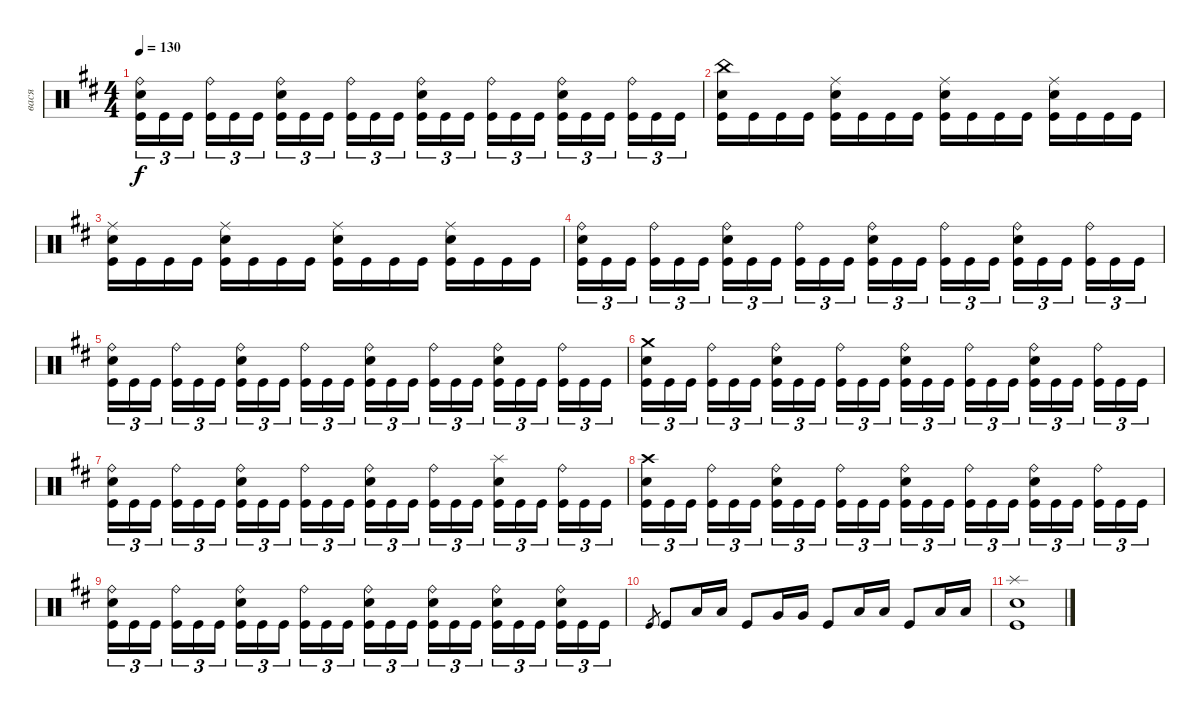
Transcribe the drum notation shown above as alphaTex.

\track ("вася" "вася") {instrument percussion}
\staff {score}
\articulation defaults
\ts (4 4)
\tempo 130
\clef neutral
\ks bminor
("Ride (bell)" "Electric Snare (hit)" "Kick (hit)").16{tu (3 2) dy f} "Kick (hit)".16{tu (3 2)} "Kick (hit)".16{tu (3 2) beam splitsecondary} ("Ride (bell)" "Kick (hit)").16{tu (3 2)} "Kick (hit)".16{tu (3 2)} "Kick (hit)".16{tu (3 2)} ("Ride (bell)" "Electric Snare (hit)" "Kick (hit)").16{tu (3 2)} "Kick (hit)".16{tu (3 2)} "Kick (hit)".16{tu (3 2) beam splitsecondary} ("Ride (bell)" "Kick (hit)").16{tu (3 2)} "Kick (hit)".16{tu (3 2)} "Kick (hit)".16{tu (3 2)} ("Ride (bell)" "Electric Snare (hit)" "Kick (hit)").16{tu (3 2)} "Kick (hit)".16{tu (3 2)} "Kick (hit)".16{tu (3 2) beam splitsecondary} ("Ride (bell)" "Kick (hit)").16{tu (3 2)} "Kick (hit)".16{tu (3 2)} "Kick (hit)".16{tu (3 2)} ("Ride (bell)" "Electric Snare (hit)" "Kick (hit)").16{tu (3 2)} "Kick (hit)".16{tu (3 2)} "Kick (hit)".16{tu (3 2) beam splitsecondary} ("Ride (bell)" "Kick (hit)").16{tu (3 2)} "Kick (hit)".16{tu (3 2)} "Kick (hit)".16{tu (3 2)} |
("China (hit)" "Electric Snare (hit)" "Kick (hit)").16 "Kick (hit)".16 "Kick (hit)".16 "Kick (hit)".16 ("Ride (middle)" "Electric Snare (hit)" "Kick (hit)").16 "Kick (hit)".16 "Kick (hit)".16 "Kick (hit)".16 ("Ride (middle)" "Electric Snare (hit)" "Kick (hit)").16 "Kick (hit)".16 "Kick (hit)".16 "Kick (hit)".16 ("Ride (middle)" "Electric Snare (hit)" "Kick (hit)").16 "Kick (hit)".16 "Kick (hit)".16 "Kick (hit)".16 |
("Ride (middle)" "Electric Snare (hit)" "Kick (hit)").16 "Kick (hit)".16 "Kick (hit)".16 "Kick (hit)".16 ("Ride (middle)" "Electric Snare (hit)" "Kick (hit)").16 "Kick (hit)".16 "Kick (hit)".16 "Kick (hit)".16 ("Ride (middle)" "Electric Snare (hit)" "Kick (hit)").16 "Kick (hit)".16 "Kick (hit)".16 "Kick (hit)".16 ("Ride (middle)" "Electric Snare (hit)" "Kick (hit)").16 "Kick (hit)".16 "Kick (hit)".16 "Kick (hit)".16 |
("Ride (bell)" "Electric Snare (hit)" "Kick (hit)").16{tu (3 2)} "Kick (hit)".16{tu (3 2)} "Kick (hit)".16{tu (3 2) beam splitsecondary} ("Ride (bell)" "Kick (hit)").16{tu (3 2)} "Kick (hit)".16{tu (3 2)} "Kick (hit)".16{tu (3 2)} ("Ride (bell)" "Electric Snare (hit)" "Kick (hit)").16{tu (3 2)} "Kick (hit)".16{tu (3 2)} "Kick (hit)".16{tu (3 2) beam splitsecondary} ("Ride (bell)" "Kick (hit)").16{tu (3 2)} "Kick (hit)".16{tu (3 2)} "Kick (hit)".16{tu (3 2)} ("Ride (bell)" "Electric Snare (hit)" "Kick (hit)").16{tu (3 2)} "Kick (hit)".16{tu (3 2)} "Kick (hit)".16{tu (3 2) beam splitsecondary} ("Ride (bell)" "Kick (hit)").16{tu (3 2)} "Kick (hit)".16{tu (3 2)} "Kick (hit)".16{tu (3 2)} ("Ride (bell)" "Electric Snare (hit)" "Kick (hit)").16{tu (3 2)} "Kick (hit)".16{tu (3 2)} "Kick (hit)".16{tu (3 2) beam splitsecondary} ("Ride (bell)" "Kick (hit)").16{tu (3 2)} "Kick (hit)".16{tu (3 2)} "Kick (hit)".16{tu (3 2)} |
("Ride (bell)" "Electric Snare (hit)" "Kick (hit)").16{tu (3 2)} "Kick (hit)".16{tu (3 2)} "Kick (hit)".16{tu (3 2) beam splitsecondary} ("Ride (bell)" "Kick (hit)").16{tu (3 2)} "Kick (hit)".16{tu (3 2)} "Kick (hit)".16{tu (3 2)} ("Ride (bell)" "Electric Snare (hit)" "Kick (hit)").16{tu (3 2)} "Kick (hit)".16{tu (3 2)} "Kick (hit)".16{tu (3 2) beam splitsecondary} ("Ride (bell)" "Kick (hit)").16{tu (3 2)} "Kick (hit)".16{tu (3 2)} "Kick (hit)".16{tu (3 2)} ("Ride (bell)" "Electric Snare (hit)" "Kick (hit)").16{tu (3 2)} "Kick (hit)".16{tu (3 2)} "Kick (hit)".16{tu (3 2) beam splitsecondary} ("Ride (bell)" "Kick (hit)").16{tu (3 2)} "Kick (hit)".16{tu (3 2)} "Kick (hit)".16{tu (3 2)} ("Ride (bell)" "Electric Snare (hit)" "Kick (hit)").16{tu (3 2)} "Kick (hit)".16{tu (3 2)} "Kick (hit)".16{tu (3 2) beam splitsecondary} ("Ride (bell)" "Kick (hit)").16{tu (3 2)} "Kick (hit)".16{tu (3 2)} "Kick (hit)".16{tu (3 2)} |
("Crash medium (hit)" "Electric Snare (hit)" "Kick (hit)").16{tu (3 2)} "Kick (hit)".16{tu (3 2)} "Kick (hit)".16{tu (3 2) beam splitsecondary} ("Ride (bell)" "Kick (hit)").16{tu (3 2)} "Kick (hit)".16{tu (3 2)} "Kick (hit)".16{tu (3 2)} ("Ride (bell)" "Electric Snare (hit)" "Kick (hit)").16{tu (3 2)} "Kick (hit)".16{tu (3 2)} "Kick (hit)".16{tu (3 2) beam splitsecondary} ("Ride (bell)" "Kick (hit)").16{tu (3 2)} "Kick (hit)".16{tu (3 2)} "Kick (hit)".16{tu (3 2)} ("Ride (bell)" "Electric Snare (hit)" "Kick (hit)").16{tu (3 2)} "Kick (hit)".16{tu (3 2)} "Kick (hit)".16{tu (3 2) beam splitsecondary} ("Ride (bell)" "Kick (hit)").16{tu (3 2)} "Kick (hit)".16{tu (3 2)} "Kick (hit)".16{tu (3 2)} ("Ride (bell)" "Electric Snare (hit)" "Kick (hit)").16{tu (3 2)} "Kick (hit)".16{tu (3 2)} "Kick (hit)".16{tu (3 2) beam splitsecondary} ("Ride (bell)" "Kick (hit)").16{tu (3 2)} "Kick (hit)".16{tu (3 2)} "Kick (hit)".16{tu (3 2)} |
("Ride (bell)" "Electric Snare (hit)" "Kick (hit)").16{tu (3 2)} "Kick (hit)".16{tu (3 2)} "Kick (hit)".16{tu (3 2) beam splitsecondary} ("Ride (bell)" "Kick (hit)").16{tu (3 2)} "Kick (hit)".16{tu (3 2)} "Kick (hit)".16{tu (3 2)} ("Ride (bell)" "Electric Snare (hit)" "Kick (hit)").16{tu (3 2)} "Kick (hit)".16{tu (3 2)} "Kick (hit)".16{tu (3 2) beam splitsecondary} ("Ride (bell)" "Kick (hit)").16{tu (3 2)} "Kick (hit)".16{tu (3 2)} "Kick (hit)".16{tu (3 2)} ("Ride (bell)" "Electric Snare (hit)" "Kick (hit)").16{tu (3 2)} "Kick (hit)".16{tu (3 2)} "Kick (hit)".16{tu (3 2) beam splitsecondary} ("Ride (bell)" "Kick (hit)").16{tu (3 2)} "Kick (hit)".16{tu (3 2)} "Kick (hit)".16{tu (3 2)} ("Splash (hit)" "Electric Snare (hit)" "Kick (hit)").16{tu (3 2)} "Kick (hit)".16{tu (3 2)} "Kick (hit)".16{tu (3 2) beam splitsecondary} ("Ride (bell)" "Kick (hit)").16{tu (3 2)} "Kick (hit)".16{tu (3 2)} "Kick (hit)".16{tu (3 2)} |
("Crash high (hit)" "Electric Snare (hit)" "Kick (hit)").16{tu (3 2)} "Kick (hit)".16{tu (3 2)} "Kick (hit)".16{tu (3 2) beam splitsecondary} ("Ride (bell)" "Kick (hit)").16{tu (3 2)} "Kick (hit)".16{tu (3 2)} "Kick (hit)".16{tu (3 2)} ("Ride (bell)" "Electric Snare (hit)" "Kick (hit)").16{tu (3 2)} "Kick (hit)".16{tu (3 2)} "Kick (hit)".16{tu (3 2) beam splitsecondary} ("Ride (bell)" "Kick (hit)").16{tu (3 2)} "Kick (hit)".16{tu (3 2)} "Kick (hit)".16{tu (3 2)} ("Ride (bell)" "Electric Snare (hit)" "Kick (hit)").16{tu (3 2)} "Kick (hit)".16{tu (3 2)} "Kick (hit)".16{tu (3 2) beam splitsecondary} ("Ride (bell)" "Kick (hit)").16{tu (3 2)} "Kick (hit)".16{tu (3 2)} "Kick (hit)".16{tu (3 2)} ("Ride (bell)" "Electric Snare (hit)" "Kick (hit)").16{tu (3 2)} "Kick (hit)".16{tu (3 2)} "Kick (hit)".16{tu (3 2) beam splitsecondary} ("Ride (bell)" "Kick (hit)").16{tu (3 2)} "Kick (hit)".16{tu (3 2)} "Kick (hit)".16{tu (3 2)} |
("Ride (bell)" "Electric Snare (hit)" "Kick (hit)").16{tu (3 2)} "Kick (hit)".16{tu (3 2)} "Kick (hit)".16{tu (3 2) beam splitsecondary} ("Ride (bell)" "Kick (hit)").16{tu (3 2)} "Kick (hit)".16{tu (3 2)} "Kick (hit)".16{tu (3 2)} ("Ride (bell)" "Electric Snare (hit)" "Kick (hit)").16{tu (3 2)} "Kick (hit)".16{tu (3 2)} "Kick (hit)".16{tu (3 2) beam splitsecondary} ("Ride (bell)" "Kick (hit)").16{tu (3 2)} "Kick (hit)".16{tu (3 2)} "Kick (hit)".16{tu (3 2)} ("Ride (bell)" "Electric Snare (hit)" "Kick (hit)").16{tu (3 2)} "Kick (hit)".16{tu (3 2)} "Kick (hit)".16{tu (3 2) beam splitsecondary} ("Ride (bell)" "Electric Snare (hit)" "Kick (hit)").16{tu (3 2)} "Kick (hit)".16{tu (3 2)} "Kick (hit)".16{tu (3 2)} ("Ride (bell)" "Electric Snare (hit)" "Kick (hit)").16{tu (3 2)} "Kick (hit)".16{tu (3 2)} "Kick (hit)".16{tu (3 2) beam splitsecondary} ("Ride (bell)" "Electric Snare (hit)" "Kick (hit)").16{tu (3 2)} "Kick (hit)".16{tu (3 2)} "Kick (hit)".16{tu (3 2)} |
"Kick (hit)".8{gr} "Kick (hit)".8 "Low Tom (hit)".16 "Low Tom (hit)".16 "Kick (hit)".8 "Very Low Tom (hit)".16 "Very Low Tom (hit)".16 "Kick (hit)".8 "Low Floor Tom (hit)".16 "Low Floor Tom (hit)".16 "Kick (hit)".8 "Low Floor Tom (hit)".16 "Low Floor Tom (hit)".16 |
("Splash (hit)" "Electric Snare (hit)" "Kick (hit)").1
